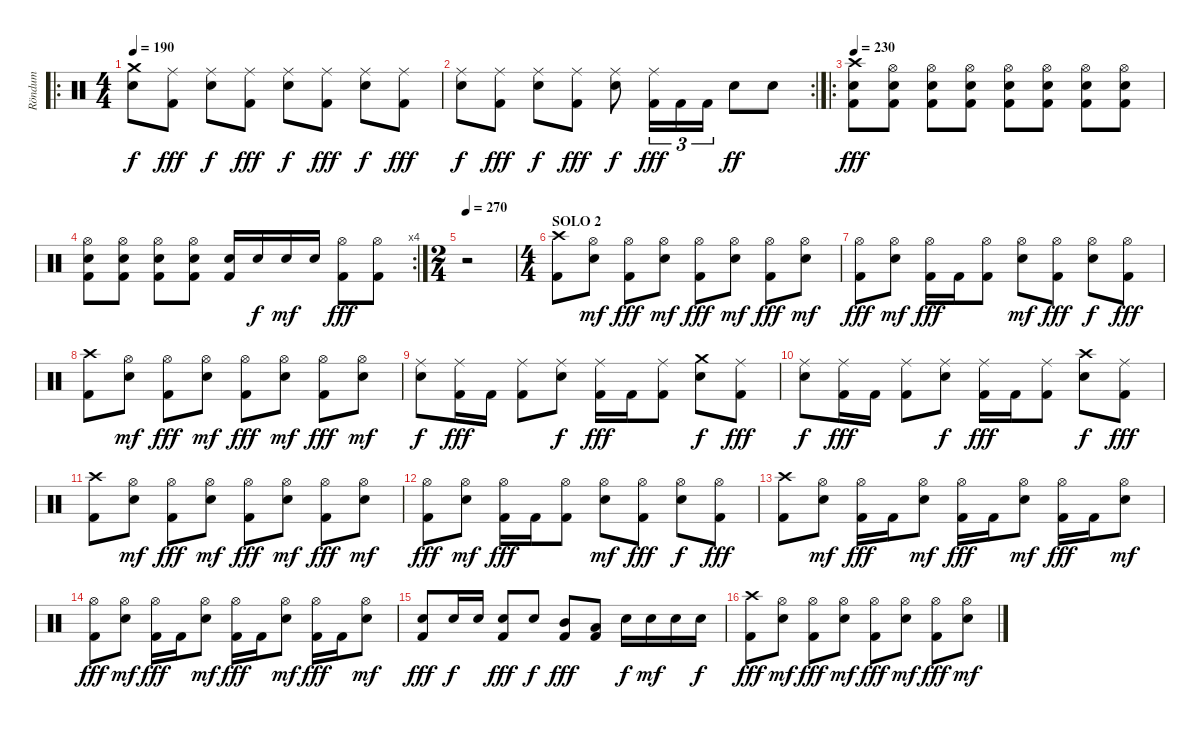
\track ("Röndum" "Röndum") {instrument percussion}
\staff {score}
\articulation defaults
\ro
\ts (4 4)
\tempo 190
\clef neutral
\ks c
("Crash medium (hit)" "Snare (hit) 2").8{dy f} ("Ride (middle)" "Kick (hit) 2").8{dy fff} ("Ride (middle)" "Snare (hit) 2").8{dy f} ("Ride (middle)" "Kick (hit) 2").8{dy fff} ("Ride (middle)" "Snare (hit) 2").8{dy f} ("Ride (middle)" "Kick (hit) 2").8{dy fff} ("Ride (middle)" "Snare (hit) 2").8{dy f} ("Ride (middle)" "Kick (hit) 2").8{dy fff} |
\rc 2
("Ride (middle)" "Snare (hit) 2").8{dy f} ("Ride (middle)" "Kick (hit) 2").8{dy fff} ("Ride (middle)" "Snare (hit) 2").8{dy f} ("Ride (middle)" "Kick (hit) 2").8{dy fff} ("Ride (middle)" "Snare (hit) 2").8{dy f} ("Ride (middle)" "Kick (hit) 2").16{tu (3 2) dy fff} "Kick (hit) 2".16{tu (3 2)} "Kick (hit) 2".16{tu (3 2)} "Snare (hit) 2".8{dy ff} "Snare (hit) 2".8 |
\ro
\tempo 230
("Crash high (hit)" "Snare (hit) 2" "Kick (hit) 2").8{dy fff} ("Hi-Hat (open)" "Snare (hit) 2" "Kick (hit) 2").8 ("Hi-Hat (open)" "Snare (hit) 2" "Kick (hit) 2").8 ("Hi-Hat (open)" "Snare (hit) 2" "Kick (hit) 2").8 ("Hi-Hat (open)" "Snare (hit) 2" "Kick (hit) 2").8 ("Hi-Hat (open)" "Snare (hit) 2" "Kick (hit) 2").8 ("Hi-Hat (open)" "Snare (hit) 2" "Kick (hit) 2").8 ("Hi-Hat (open)" "Snare (hit) 2" "Kick (hit) 2").8 |
\rc 4
("Hi-Hat (open)" "Snare (hit) 2" "Kick (hit) 2").8 ("Hi-Hat (open)" "Snare (hit) 2" "Kick (hit) 2").8 ("Hi-Hat (open)" "Snare (hit) 2" "Kick (hit) 2").8 ("Hi-Hat (open)" "Snare (hit) 2" "Kick (hit) 2").8 ("Snare (hit) 2" "Kick (hit) 2").16 "Snare (hit) 2".16{dy f} "Snare (hit) 2".16{dy mf} "Snare (hit) 2".16 ("Hi-Hat (open)" "Kick (hit) 2").8{dy fff} ("Hi-Hat (open)" "Kick (hit) 2").8 |
\ts (2 4)
\tempo 270
r.2 |
\ts (4 4)
\section ("" "SOLO 2")
("Crash high (hit)" "Kick (hit) 2").8 ("Hi-Hat (open)" "Snare (hit) 2").8{dy mf} ("Hi-Hat (open)" "Kick (hit) 2").8{dy fff} ("Hi-Hat (open)" "Snare (hit) 2").8{dy mf} ("Hi-Hat (open)" "Kick (hit) 2").8{dy fff} ("Hi-Hat (open)" "Snare (hit) 2").8{dy mf} ("Hi-Hat (open)" "Kick (hit) 2").8{dy fff} ("Hi-Hat (open)" "Snare (hit) 2").8{dy mf} |
("Hi-Hat (open)" "Kick (hit) 2").8{dy fff} ("Hi-Hat (open)" "Snare (hit) 2").8{dy mf} ("Hi-Hat (open)" "Kick (hit) 2").16{dy fff} "Kick (hit) 2".16 ("Hi-Hat (open)" "Kick (hit) 2").8 ("Hi-Hat (open)" "Snare (hit) 2").8{dy mf} ("Hi-Hat (open)" "Kick (hit) 2").8{dy fff} ("Hi-Hat (open)" "Snare (hit) 2").8{dy f} ("Hi-Hat (open)" "Kick (hit) 2").8{dy fff} |
("Crash high (hit)" "Kick (hit) 2").8 ("Hi-Hat (open)" "Snare (hit) 2").8{dy mf} ("Hi-Hat (open)" "Kick (hit) 2").8{dy fff} ("Hi-Hat (open)" "Snare (hit) 2").8{dy mf} ("Hi-Hat (open)" "Kick (hit) 2").8{dy fff} ("Hi-Hat (open)" "Snare (hit) 2").8{dy mf} ("Hi-Hat (open)" "Kick (hit) 2").8{dy fff} ("Hi-Hat (open)" "Snare (hit) 2").8{dy mf} |
("Ride (middle)" "Snare (hit) 2").8{dy f} ("Ride (middle)" "Kick (hit) 2").16{dy fff} "Kick (hit) 2".16 ("Ride (middle)" "Kick (hit) 2").8 ("Ride (middle)" "Snare (hit) 2").8{dy f} ("Ride (middle)" "Kick (hit) 2").16{dy fff} "Kick (hit) 2".16 ("Ride (middle)" "Kick (hit) 2").8 ("Crash medium (hit)" "Snare (hit) 2").8{dy f} ("Ride (middle)" "Kick (hit) 2").8{dy fff} |
("Ride (middle)" "Snare (hit) 2").8{dy f} ("Ride (middle)" "Kick (hit) 2").16{dy fff} "Kick (hit) 2".16 ("Ride (middle)" "Kick (hit) 2").8 ("Ride (middle)" "Snare (hit) 2").8{dy f} ("Ride (middle)" "Kick (hit) 2").16{dy fff} "Kick (hit) 2".16 ("Ride (middle)" "Kick (hit) 2").8 ("Crash high (hit)" "Snare (hit) 2").8{dy f} ("Ride (middle)" "Kick (hit) 2").8{dy fff} |
("Crash high (hit)" "Kick (hit) 2").8 ("Hi-Hat (open)" "Snare (hit) 2").8{dy mf} ("Hi-Hat (open)" "Kick (hit) 2").8{dy fff} ("Hi-Hat (open)" "Snare (hit) 2").8{dy mf} ("Hi-Hat (open)" "Kick (hit) 2").8{dy fff} ("Hi-Hat (open)" "Snare (hit) 2").8{dy mf} ("Hi-Hat (open)" "Kick (hit) 2").8{dy fff} ("Hi-Hat (open)" "Snare (hit) 2").8{dy mf} |
("Hi-Hat (open)" "Kick (hit) 2").8{dy fff} ("Hi-Hat (open)" "Snare (hit) 2").8{dy mf} ("Hi-Hat (open)" "Kick (hit) 2").16{dy fff} "Kick (hit) 2".16 ("Hi-Hat (open)" "Kick (hit) 2").8 ("Hi-Hat (open)" "Snare (hit) 2").8{dy mf} ("Hi-Hat (open)" "Kick (hit) 2").8{dy fff} ("Hi-Hat (open)" "Snare (hit) 2").8{dy f} ("Hi-Hat (open)" "Kick (hit) 2").8{dy fff} |
("Crash high (hit)" "Kick (hit) 2").8 ("Hi-Hat (open)" "Snare (hit) 2").8{dy mf} ("Hi-Hat (open)" "Kick (hit) 2").16{dy fff} "Kick (hit) 2".16 ("Hi-Hat (open)" "Snare (hit) 2").8{dy mf} ("Hi-Hat (open)" "Kick (hit) 2").16{dy fff} "Kick (hit) 2".16 ("Hi-Hat (open)" "Snare (hit) 2").8{dy mf} ("Hi-Hat (open)" "Kick (hit) 2").16{dy fff} "Kick (hit) 2".16 ("Hi-Hat (open)" "Snare (hit) 2").8{dy mf} |
("Hi-Hat (open)" "Kick (hit) 2").8{dy fff} ("Hi-Hat (open)" "Snare (hit) 2").8{dy mf} ("Hi-Hat (open)" "Kick (hit) 2").16{dy fff} "Kick (hit) 2".16 ("Hi-Hat (open)" "Snare (hit) 2").8{dy mf} ("Hi-Hat (open)" "Kick (hit) 2").16{dy fff} "Kick (hit) 2".16 ("Hi-Hat (open)" "Snare (hit) 2").8{dy mf} ("Hi-Hat (open)" "Kick (hit) 2").16{dy fff} "Kick (hit) 2".16 ("Hi-Hat (open)" "Snare (hit) 2").8{dy mf} |
("Snare (hit) 2" "Kick (hit) 2").8{dy fff} "Snare (hit) 2".16{dy f} "Snare (hit) 2".16 ("Snare (hit) 2" "Kick (hit) 2").8{dy fff} "Snare (hit) 2".8{dy f} ("Mid Tom (hit)" "Kick (hit) 2").8{dy fff} ("Low Tom (hit)" "Kick (hit) 2").8 "Snare (hit) 2".16{dy f} "Snare (hit) 2".16{dy mf} "Snare (hit) 2".16 "Snare (hit) 2".16{dy f} |
("Crash high (hit)" "Kick (hit) 2").8{dy fff} ("Hi-Hat (open)" "Snare (hit) 2").8{dy mf} ("Hi-Hat (open)" "Kick (hit) 2").8{dy fff} ("Hi-Hat (open)" "Snare (hit) 2").8{dy mf} ("Hi-Hat (open)" "Kick (hit) 2").8{dy fff} ("Hi-Hat (open)" "Snare (hit) 2").8{dy mf} ("Hi-Hat (open)" "Kick (hit) 2").8{dy fff} ("Hi-Hat (open)" "Snare (hit) 2").8{dy mf}
